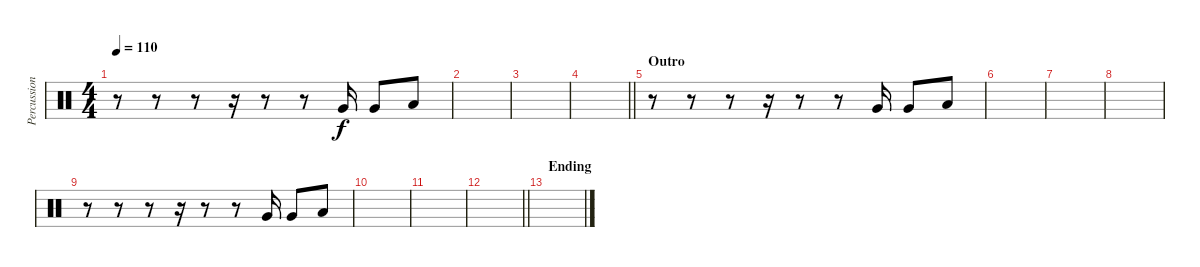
\track ("Percussion Toms" "Percussion") {instrument percussion}
\staff {score}
\articulation defaults
\ts (4 4)
\tempo 110
\clef neutral
\ks c
r.8{dy f} r.8 r.8 r.16 r.8 r.8 "Very Low Tom (hit)".16 "Very Low Tom (hit)".8 "Low Floor Tom (hit)".8 |
|
|
\barLineRight lightlight
|
\section ("" "Outro")
r.8 r.8 r.8 r.16 r.8 r.8 "Very Low Tom (hit)".16 "Very Low Tom (hit)".8 "Low Floor Tom (hit)".8 |
|
|
|
r.8 r.8 r.8 r.16 r.8 r.8 "Very Low Tom (hit)".16 "Very Low Tom (hit)".8 "Low Floor Tom (hit)".8 |
|
|
\barLineRight lightlight
|
\section ("" "Ending")
